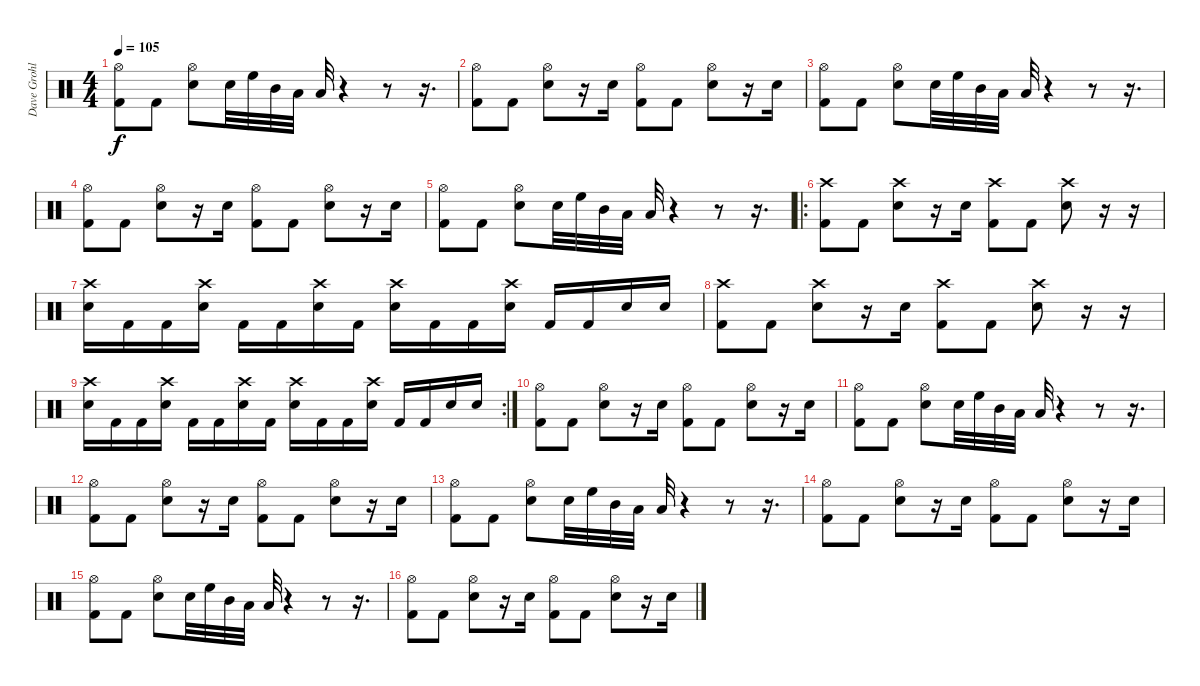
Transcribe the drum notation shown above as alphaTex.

\track ("Dave Grohl" "Dave Grohl") {instrument percussion}
\staff {score}
\articulation defaults
\ts (4 4)
\tempo 105
\clef neutral
\ks c
("Hi-Hat (open)" "Kick (hit) 2").8{dy f} "Kick (hit) 2".8 ("Hi-Hat (open)" "Snare (hit) 2").8 "Snare (hit) 2".32 "High Floor Tom (hit)".32 "Mid Tom (hit)".32 "Low Tom (hit)".32 "Low Floor Tom (hit)".32 r.4 r.8 r.16{d} |
("Hi-Hat (open)" "Kick (hit) 2").8 "Kick (hit) 2".8 ("Hi-Hat (open)" "Snare (hit) 2").8 r.16 "Snare (hit) 2".16 ("Hi-Hat (open)" "Kick (hit) 2").8 "Kick (hit) 2".8 ("Hi-Hat (open)" "Snare (hit) 2").8 r.16 "Snare (hit) 2".16 |
("Hi-Hat (open)" "Kick (hit) 2").8 "Kick (hit) 2".8 ("Hi-Hat (open)" "Snare (hit) 2").8 "Snare (hit) 2".32 "High Floor Tom (hit)".32 "Mid Tom (hit)".32 "Low Tom (hit)".32 "Low Floor Tom (hit)".32 r.4 r.8 r.16{d} |
("Hi-Hat (open)" "Kick (hit) 2").8 "Kick (hit) 2".8 ("Hi-Hat (open)" "Snare (hit) 2").8 r.16 "Snare (hit) 2".16 ("Hi-Hat (open)" "Kick (hit) 2").8 "Kick (hit) 2".8 ("Hi-Hat (open)" "Snare (hit) 2").8 r.16 "Snare (hit) 2".16 |
("Hi-Hat (open)" "Kick (hit) 2").8 "Kick (hit) 2".8 ("Hi-Hat (open)" "Snare (hit) 2").8 "Snare (hit) 2".32 "High Floor Tom (hit)".32 "Mid Tom (hit)".32 "Low Tom (hit)".32 "Low Floor Tom (hit)".32 r.4 r.8 r.16{d} |
\ro
("Crash high (hit)" "Kick (hit) 2").8 "Kick (hit) 2".8 ("Crash high (hit)" "Snare (hit) 2").8 r.16 "Snare (hit) 2".16 ("Crash high (hit)" "Kick (hit) 2").8 "Kick (hit) 2".8 ("Crash high (hit)" "Snare (hit) 2").8 r.16 r.16 |
("Crash high (hit)" "Snare (hit) 2").16 "Kick (hit) 2".16 "Kick (hit) 2".16 ("Crash high (hit)" "Snare (hit) 2").16 "Kick (hit) 2".16 "Kick (hit) 2".16 ("Crash high (hit)" "Snare (hit) 2").16 "Kick (hit) 2".16 ("Crash high (hit)" "Snare (hit) 2").16 "Kick (hit) 2".16 "Kick (hit) 2".16 ("Crash high (hit)" "Snare (hit) 2").16 "Kick (hit) 2".16 "Kick (hit) 2".16 "Snare (hit) 2".16 "Snare (hit) 2".16 |
("Crash high (hit)" "Kick (hit) 2").8 "Kick (hit) 2".8 ("Crash high (hit)" "Snare (hit) 2").8 r.16 "Snare (hit) 2".16 ("Crash high (hit)" "Kick (hit) 2").8 "Kick (hit) 2".8 ("Crash high (hit)" "Snare (hit) 2").8 r.16 r.16 |
\rc 2
("Crash high (hit)" "Snare (hit) 2").16 "Kick (hit) 2".16 "Kick (hit) 2".16 ("Crash high (hit)" "Snare (hit) 2").16 "Kick (hit) 2".16 "Kick (hit) 2".16 ("Crash high (hit)" "Snare (hit) 2").16 "Kick (hit) 2".16 ("Crash high (hit)" "Snare (hit) 2").16 "Kick (hit) 2".16 "Kick (hit) 2".16 ("Crash high (hit)" "Snare (hit) 2").16 "Kick (hit) 2".16 "Kick (hit) 2".16 "Snare (hit) 2".16 "Snare (hit) 2".16 |
("Hi-Hat (open)" "Kick (hit) 2").8 "Kick (hit) 2".8 ("Hi-Hat (open)" "Snare (hit) 2").8 r.16 "Snare (hit) 2".16 ("Hi-Hat (open)" "Kick (hit) 2").8 "Kick (hit) 2".8 ("Hi-Hat (open)" "Snare (hit) 2").8 r.16 "Snare (hit) 2".16 |
("Hi-Hat (open)" "Kick (hit) 2").8 "Kick (hit) 2".8 ("Hi-Hat (open)" "Snare (hit) 2").8 "Snare (hit) 2".32 "High Floor Tom (hit)".32 "Mid Tom (hit)".32 "Low Tom (hit)".32 "Low Floor Tom (hit)".32 r.4 r.8 r.16{d} |
("Hi-Hat (open)" "Kick (hit) 2").8 "Kick (hit) 2".8 ("Hi-Hat (open)" "Snare (hit) 2").8 r.16 "Snare (hit) 2".16 ("Hi-Hat (open)" "Kick (hit) 2").8 "Kick (hit) 2".8 ("Hi-Hat (open)" "Snare (hit) 2").8 r.16 "Snare (hit) 2".16 |
("Hi-Hat (open)" "Kick (hit) 2").8 "Kick (hit) 2".8 ("Hi-Hat (open)" "Snare (hit) 2").8 "Snare (hit) 2".32 "High Floor Tom (hit)".32 "Mid Tom (hit)".32 "Low Tom (hit)".32 "Low Floor Tom (hit)".32 r.4 r.8 r.16{d} |
("Hi-Hat (open)" "Kick (hit) 2").8 "Kick (hit) 2".8 ("Hi-Hat (open)" "Snare (hit) 2").8 r.16 "Snare (hit) 2".16 ("Hi-Hat (open)" "Kick (hit) 2").8 "Kick (hit) 2".8 ("Hi-Hat (open)" "Snare (hit) 2").8 r.16 "Snare (hit) 2".16 |
("Hi-Hat (open)" "Kick (hit) 2").8 "Kick (hit) 2".8 ("Hi-Hat (open)" "Snare (hit) 2").8 "Snare (hit) 2".32 "High Floor Tom (hit)".32 "Mid Tom (hit)".32 "Low Tom (hit)".32 "Low Floor Tom (hit)".32 r.4 r.8 r.16{d} |
("Hi-Hat (open)" "Kick (hit) 2").8 "Kick (hit) 2".8 ("Hi-Hat (open)" "Snare (hit) 2").8 r.16 "Snare (hit) 2".16 ("Hi-Hat (open)" "Kick (hit) 2").8 "Kick (hit) 2".8 ("Hi-Hat (open)" "Snare (hit) 2").8 r.16 "Snare (hit) 2".16
